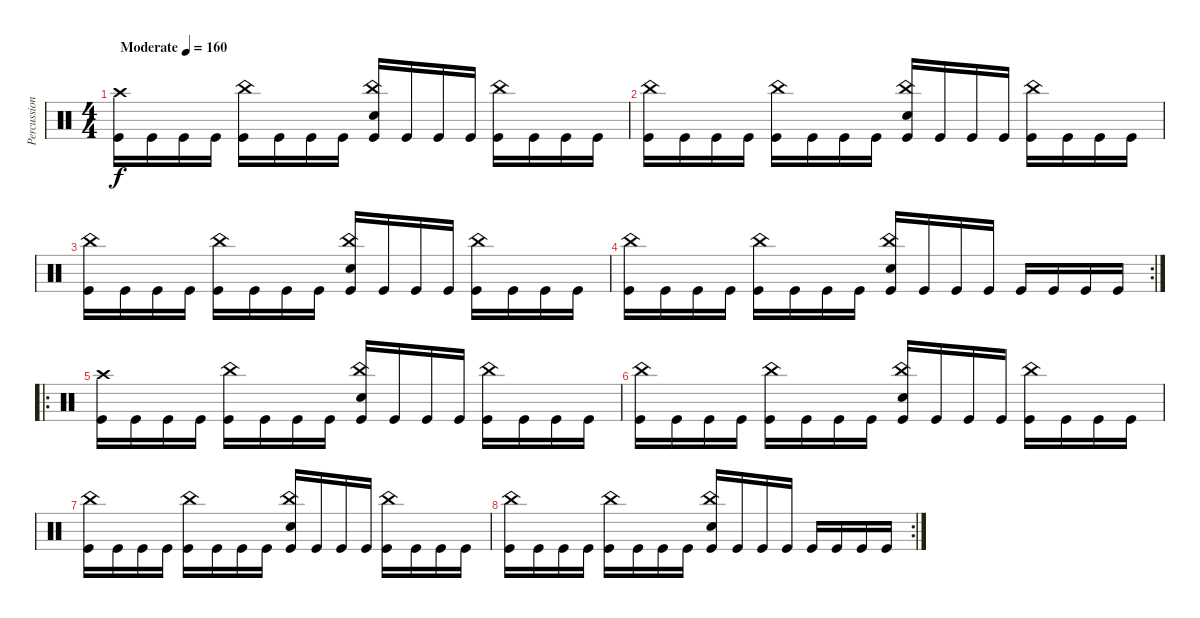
\track ("Percussion" "Percussion") {instrument percussion}
\staff {score}
\articulation defaults
\ts (4 4)
\tempo (160 "Moderate")
\clef neutral
\ks c
("Crash high (hit)" "Kick (hit)").16{dy f} "Kick (hit)".16 "Kick (hit)".16 "Kick (hit)".16 ("China (hit)" "Kick (hit)").16 "Kick (hit)".16 "Kick (hit)".16 "Kick (hit)".16 ("China (hit)" "Snare (hit) 2" "Kick (hit)").16 "Kick (hit)".16 "Kick (hit)".16 "Kick (hit)".16 ("China (hit)" "Kick (hit)").16 "Kick (hit)".16 "Kick (hit)".16 "Kick (hit)".16 |
("China (hit)" "Kick (hit)").16 "Kick (hit)".16 "Kick (hit)".16 "Kick (hit)".16 ("China (hit)" "Kick (hit)").16 "Kick (hit)".16 "Kick (hit)".16 "Kick (hit)".16 ("China (hit)" "Snare (hit) 2" "Kick (hit)").16 "Kick (hit)".16 "Kick (hit)".16 "Kick (hit)".16 ("China (hit)" "Kick (hit)").16 "Kick (hit)".16 "Kick (hit)".16 "Kick (hit)".16 |
("China (hit)" "Kick (hit)").16 "Kick (hit)".16 "Kick (hit)".16 "Kick (hit)".16 ("China (hit)" "Kick (hit)").16 "Kick (hit)".16 "Kick (hit)".16 "Kick (hit)".16 ("China (hit)" "Snare (hit) 2" "Kick (hit)").16 "Kick (hit)".16 "Kick (hit)".16 "Kick (hit)".16 ("China (hit)" "Kick (hit)").16 "Kick (hit)".16 "Kick (hit)".16 "Kick (hit)".16 |
\rc 2
("China (hit)" "Kick (hit)").16 "Kick (hit)".16 "Kick (hit)".16 "Kick (hit)".16 ("China (hit)" "Kick (hit)").16 "Kick (hit)".16 "Kick (hit)".16 "Kick (hit)".16 ("China (hit)" "Snare (hit) 2" "Kick (hit)").16 "Kick (hit)".16 "Kick (hit)".16 "Kick (hit)".16 "Kick (hit)".16 "Kick (hit)".16 "Kick (hit)".16 "Kick (hit)".16 |
\ro
("Crash high (hit)" "Kick (hit)").16 "Kick (hit)".16 "Kick (hit)".16 "Kick (hit)".16 ("China (hit)" "Kick (hit)").16 "Kick (hit)".16 "Kick (hit)".16 "Kick (hit)".16 ("China (hit)" "Snare (hit) 2" "Kick (hit)").16 "Kick (hit)".16 "Kick (hit)".16 "Kick (hit)".16 ("China (hit)" "Kick (hit)").16 "Kick (hit)".16 "Kick (hit)".16 "Kick (hit)".16 |
("China (hit)" "Kick (hit)").16 "Kick (hit)".16 "Kick (hit)".16 "Kick (hit)".16 ("China (hit)" "Kick (hit)").16 "Kick (hit)".16 "Kick (hit)".16 "Kick (hit)".16 ("China (hit)" "Snare (hit) 2" "Kick (hit)").16 "Kick (hit)".16 "Kick (hit)".16 "Kick (hit)".16 ("China (hit)" "Kick (hit)").16 "Kick (hit)".16 "Kick (hit)".16 "Kick (hit)".16 |
("China (hit)" "Kick (hit)").16 "Kick (hit)".16 "Kick (hit)".16 "Kick (hit)".16 ("China (hit)" "Kick (hit)").16 "Kick (hit)".16 "Kick (hit)".16 "Kick (hit)".16 ("China (hit)" "Snare (hit) 2" "Kick (hit)").16 "Kick (hit)".16 "Kick (hit)".16 "Kick (hit)".16 ("China (hit)" "Kick (hit)").16 "Kick (hit)".16 "Kick (hit)".16 "Kick (hit)".16 |
\rc 2
("China (hit)" "Kick (hit)").16 "Kick (hit)".16 "Kick (hit)".16 "Kick (hit)".16 ("China (hit)" "Kick (hit)").16 "Kick (hit)".16 "Kick (hit)".16 "Kick (hit)".16 ("China (hit)" "Snare (hit) 2" "Kick (hit)").16 "Kick (hit)".16 "Kick (hit)".16 "Kick (hit)".16 "Kick (hit)".16 "Kick (hit)".16 "Kick (hit)".16 "Kick (hit)".16
